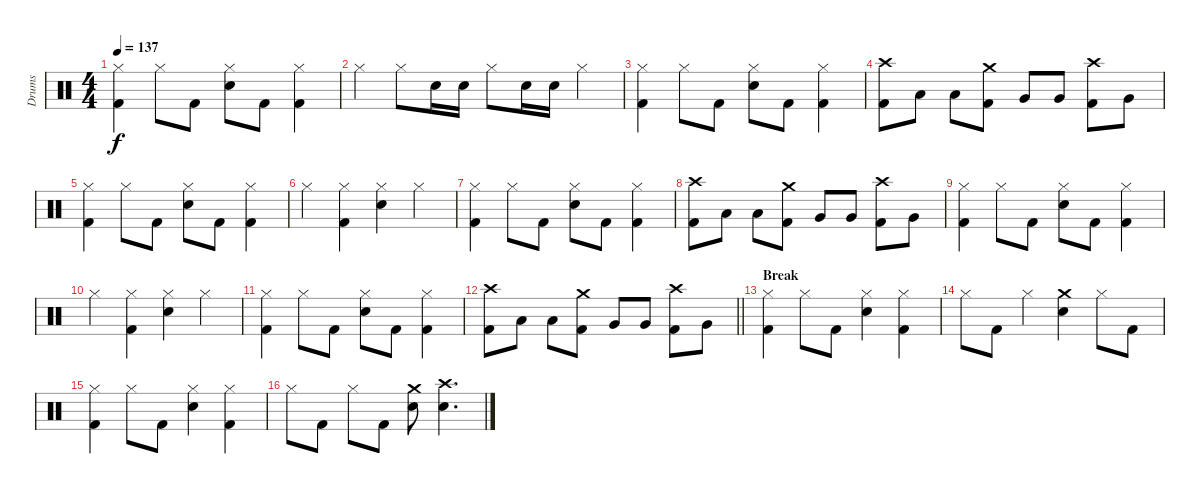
\track ("Drums" "Drums") {instrument percussion}
\staff {score}
\articulation defaults
\ts (4 4)
\tempo 137
\clef neutral
\ks c
("Hi-Hat (closed)" "Kick (hit) 2").4{dy f} "Hi-Hat (closed)".8 "Kick (hit) 2".8 ("Hi-Hat (closed)" "Electric Snare (hit)").8 "Kick (hit) 2".8 ("Hi-Hat (closed)" "Kick (hit) 2").4 |
"Hi-Hat (closed)".4 "Hi-Hat (closed)".8 "Electric Snare (hit)".16 "Electric Snare (hit)".16 "Hi-Hat (closed)".8 "Electric Snare (hit)".16 "Electric Snare (hit)".16 "Hi-Hat (closed)".4 |
("Hi-Hat (closed)" "Kick (hit) 2").4 "Hi-Hat (closed)".8 "Kick (hit) 2".8 ("Hi-Hat (closed)" "Electric Snare (hit)").8 "Kick (hit) 2".8 ("Hi-Hat (closed)" "Kick (hit) 2").4 |
("Crash high (hit)" "Kick (hit) 2").8 "Low Tom (hit)".8 "Low Tom (hit)".8 ("Crash medium (hit)" "Kick (hit) 2").8 "Very Low Tom (hit)".8 "Very Low Tom (hit)".8 ("Crash high (hit)" "Kick (hit) 2").8 "Very Low Tom (hit)".8 |
("Hi-Hat (closed)" "Kick (hit) 2").4 "Hi-Hat (closed)".8 "Kick (hit) 2".8 ("Hi-Hat (closed)" "Electric Snare (hit)").8 "Kick (hit) 2".8 ("Hi-Hat (closed)" "Kick (hit) 2").4 |
"Hi-Hat (closed)".4 ("Hi-Hat (closed)" "Kick (hit) 2").4 ("Hi-Hat (closed)" "Electric Snare (hit)").4 "Hi-Hat (closed)".4 |
("Hi-Hat (closed)" "Kick (hit) 2").4 "Hi-Hat (closed)".8 "Kick (hit) 2".8 ("Hi-Hat (closed)" "Electric Snare (hit)").8 "Kick (hit) 2".8 ("Hi-Hat (closed)" "Kick (hit) 2").4 |
("Crash high (hit)" "Kick (hit) 2").8 "Low Tom (hit)".8 "Low Tom (hit)".8 ("Crash medium (hit)" "Kick (hit) 2").8 "Very Low Tom (hit)".8 "Very Low Tom (hit)".8 ("Crash high (hit)" "Kick (hit) 2").8 "Very Low Tom (hit)".8 |
("Hi-Hat (closed)" "Kick (hit) 2").4 "Hi-Hat (closed)".8 "Kick (hit) 2".8 ("Hi-Hat (closed)" "Electric Snare (hit)").8 "Kick (hit) 2".8 ("Hi-Hat (closed)" "Kick (hit) 2").4 |
"Hi-Hat (closed)".4 ("Hi-Hat (closed)" "Kick (hit) 2").4 ("Hi-Hat (closed)" "Electric Snare (hit)").4 "Hi-Hat (closed)".4 |
("Hi-Hat (closed)" "Kick (hit) 2").4 "Hi-Hat (closed)".8 "Kick (hit) 2".8 ("Hi-Hat (closed)" "Electric Snare (hit)").8 "Kick (hit) 2".8 ("Hi-Hat (closed)" "Kick (hit) 2").4 |
\barLineRight lightlight
("Crash high (hit)" "Kick (hit) 2").8 "Low Tom (hit)".8 "Low Tom (hit)".8 ("Crash medium (hit)" "Kick (hit) 2").8 "Very Low Tom (hit)".8 "Very Low Tom (hit)".8 ("Crash high (hit)" "Kick (hit) 2").8 "Very Low Tom (hit)".8 |
\section ("" "Break")
("Hi-Hat (closed)" "Kick (hit) 2").4 "Hi-Hat (closed)".8 "Kick (hit) 2".8 ("Hi-Hat (closed)" "Electric Snare (hit)").4 ("Hi-Hat (closed)" "Kick (hit) 2").4 |
"Hi-Hat (closed)".8 "Kick (hit) 2".8 "Hi-Hat (closed)".4 ("Crash medium (hit)" "Electric Snare (hit)").4 "Hi-Hat (closed)".8 "Kick (hit) 2".8 |
("Hi-Hat (closed)" "Kick (hit) 2").4 "Hi-Hat (closed)".8 "Kick (hit) 2".8 ("Hi-Hat (closed)" "Electric Snare (hit)").4 ("Hi-Hat (closed)" "Kick (hit) 2").4 |
"Hi-Hat (closed)".8 "Kick (hit) 2".8 "Hi-Hat (closed)".8 "Kick (hit) 2".8 ("Crash medium (hit)" "Electric Snare (hit)").8 ("Crash high (hit)" "Electric Snare (hit)").4{d}
